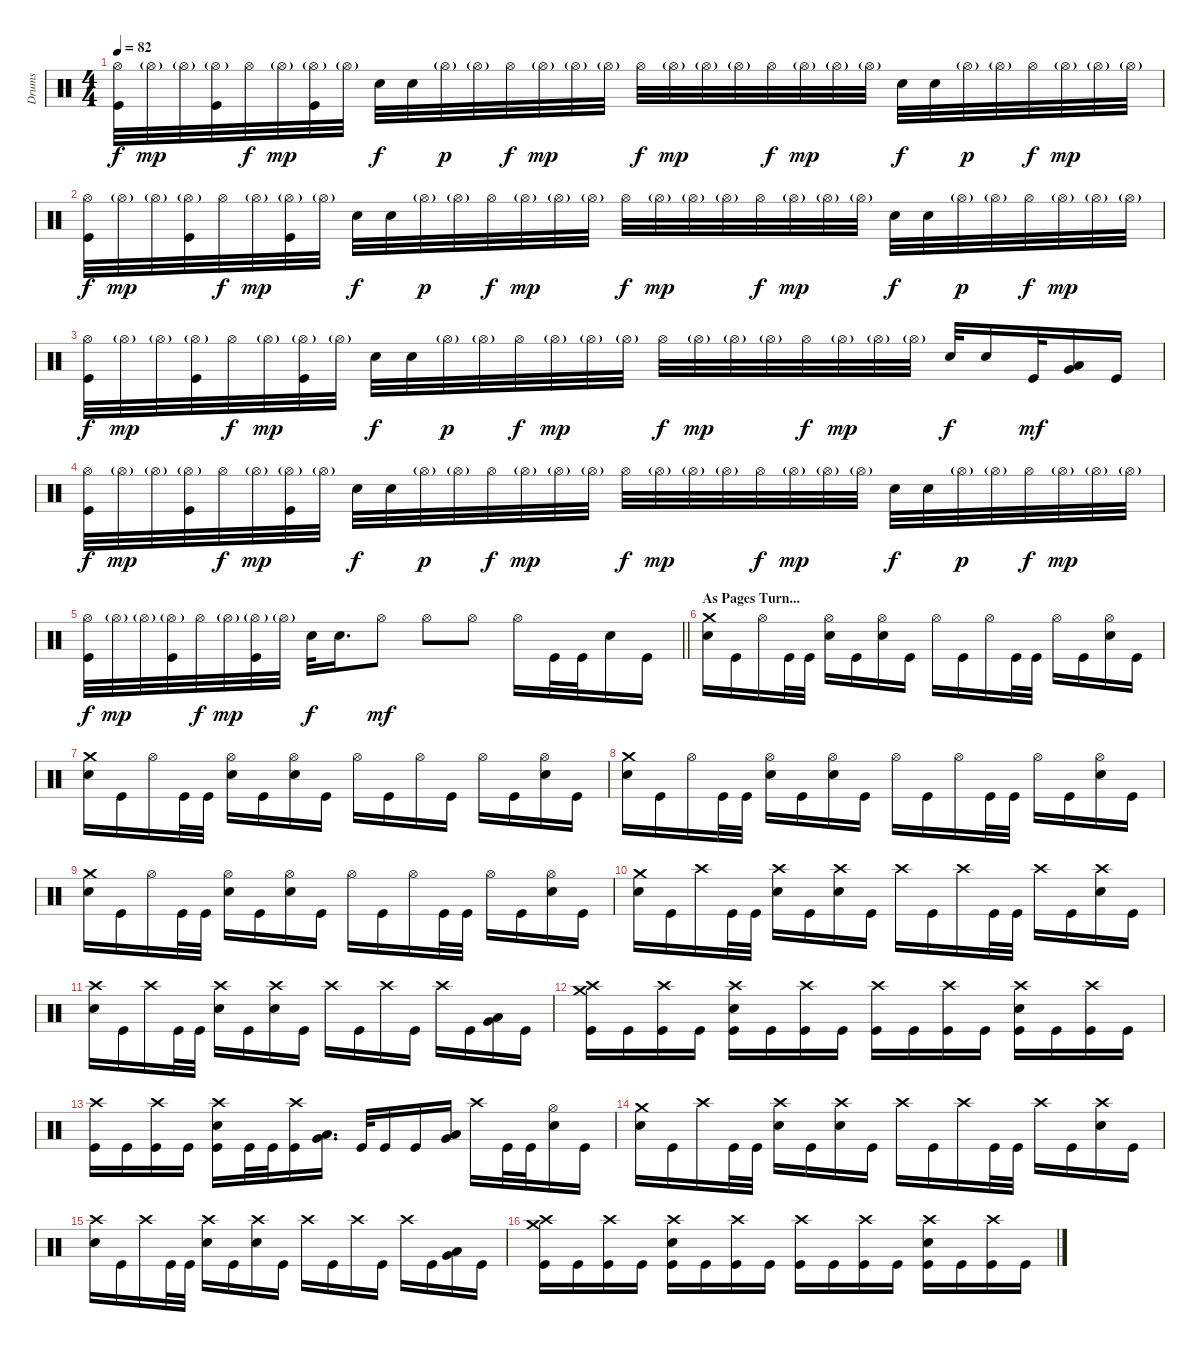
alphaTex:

\track ("Drums" "Drums") {instrument percussion bank 177}
\staff {score}
\articulation defaults
\ts (4 4)
\tempo 82
\clef neutral
\ks c
("Hi-Hat (open)" "Kick (hit)").32{dy f} "Hi-Hat (open)"{g}.32{dy mp} "Hi-Hat (open)"{g}.32 ("Hi-Hat (open)"{g} "Kick (hit)").32 "Hi-Hat (open)".32{dy f} "Hi-Hat (open)"{g}.32{dy mp} ("Hi-Hat (open)"{g} "Kick (hit)").32 "Hi-Hat (open)"{g}.32 "Snare (hit) 2".32{dy f} "Snare (hit) 2".32 "Hi-Hat (open)"{g}.32{dy p} "Hi-Hat (open)"{g}.32 "Hi-Hat (open)".32{dy f} "Hi-Hat (open)"{g}.32{dy mp} "Hi-Hat (open)"{g}.32 "Hi-Hat (open)"{g}.32 "Hi-Hat (open)".32{dy f} "Hi-Hat (open)"{g}.32{dy mp} "Hi-Hat (open)"{g}.32 "Hi-Hat (open)"{g}.32 "Hi-Hat (open)".32{dy f} "Hi-Hat (open)"{g}.32{dy mp} "Hi-Hat (open)"{g}.32 "Hi-Hat (open)"{g}.32 "Snare (hit) 2".32{dy f} "Snare (hit) 2".32 "Hi-Hat (open)"{g}.32{dy p} "Hi-Hat (open)"{g}.32 "Hi-Hat (open)".32{dy f} "Hi-Hat (open)"{g}.32{dy mp} "Hi-Hat (open)"{g}.32 "Hi-Hat (open)"{g}.32 |
("Hi-Hat (open)" "Kick (hit)").32{dy f} "Hi-Hat (open)"{g}.32{dy mp} "Hi-Hat (open)"{g}.32 ("Hi-Hat (open)"{g} "Kick (hit)").32 "Hi-Hat (open)".32{dy f} "Hi-Hat (open)"{g}.32{dy mp} ("Hi-Hat (open)"{g} "Kick (hit)").32 "Hi-Hat (open)"{g}.32 "Snare (hit) 2".32{dy f} "Snare (hit) 2".32 "Hi-Hat (open)"{g}.32{dy p} "Hi-Hat (open)"{g}.32 "Hi-Hat (open)".32{dy f} "Hi-Hat (open)"{g}.32{dy mp} "Hi-Hat (open)"{g}.32 "Hi-Hat (open)"{g}.32 "Hi-Hat (open)".32{dy f} "Hi-Hat (open)"{g}.32{dy mp} "Hi-Hat (open)"{g}.32 "Hi-Hat (open)"{g}.32 "Hi-Hat (open)".32{dy f} "Hi-Hat (open)"{g}.32{dy mp} "Hi-Hat (open)"{g}.32 "Hi-Hat (open)"{g}.32 "Snare (hit) 2".32{dy f} "Snare (hit) 2".32 "Hi-Hat (open)"{g}.32{dy p} "Hi-Hat (open)"{g}.32 "Hi-Hat (open)".32{dy f} "Hi-Hat (open)"{g}.32{dy mp} "Hi-Hat (open)"{g}.32 "Hi-Hat (open)"{g}.32 |
("Hi-Hat (open)" "Kick (hit)").32{dy f} "Hi-Hat (open)"{g}.32{dy mp} "Hi-Hat (open)"{g}.32 ("Hi-Hat (open)"{g} "Kick (hit)").32 "Hi-Hat (open)".32{dy f} "Hi-Hat (open)"{g}.32{dy mp} ("Hi-Hat (open)"{g} "Kick (hit)").32 "Hi-Hat (open)"{g}.32 "Snare (hit) 2".32{dy f} "Snare (hit) 2".32 "Hi-Hat (open)"{g}.32{dy p} "Hi-Hat (open)"{g}.32 "Hi-Hat (open)".32{dy f} "Hi-Hat (open)"{g}.32{dy mp} "Hi-Hat (open)"{g}.32 "Hi-Hat (open)"{g}.32 "Hi-Hat (open)".32{dy f} "Hi-Hat (open)"{g}.32{dy mp} "Hi-Hat (open)"{g}.32 "Hi-Hat (open)"{g}.32 "Hi-Hat (open)".32{dy f} "Hi-Hat (open)"{g}.32{dy mp} "Hi-Hat (open)"{g}.32 "Hi-Hat (open)"{g}.32 "Snare (hit) 2".32{dy f} "Snare (hit) 2".16 "Kick (hit)".32{dy mf} ("Low Tom (hit)" "Very Low Tom (hit)").16 "Kick (hit)".16 |
("Hi-Hat (open)" "Kick (hit)").32{dy f} "Hi-Hat (open)"{g}.32{dy mp} "Hi-Hat (open)"{g}.32 ("Hi-Hat (open)"{g} "Kick (hit)").32 "Hi-Hat (open)".32{dy f} "Hi-Hat (open)"{g}.32{dy mp} ("Hi-Hat (open)"{g} "Kick (hit)").32 "Hi-Hat (open)"{g}.32 "Snare (hit) 2".32{dy f} "Snare (hit) 2".32 "Hi-Hat (open)"{g}.32{dy p} "Hi-Hat (open)"{g}.32 "Hi-Hat (open)".32{dy f} "Hi-Hat (open)"{g}.32{dy mp} "Hi-Hat (open)"{g}.32 "Hi-Hat (open)"{g}.32 "Hi-Hat (open)".32{dy f} "Hi-Hat (open)"{g}.32{dy mp} "Hi-Hat (open)"{g}.32 "Hi-Hat (open)"{g}.32 "Hi-Hat (open)".32{dy f} "Hi-Hat (open)"{g}.32{dy mp} "Hi-Hat (open)"{g}.32 "Hi-Hat (open)"{g}.32 "Snare (hit) 2".32{dy f} "Snare (hit) 2".32 "Hi-Hat (open)"{g}.32{dy p} "Hi-Hat (open)"{g}.32 "Hi-Hat (open)".32{dy f} "Hi-Hat (open)"{g}.32{dy mp} "Hi-Hat (open)"{g}.32 "Hi-Hat (open)"{g}.32 |
\barLineRight lightlight
("Hi-Hat (open)" "Kick (hit)").32{dy f} "Hi-Hat (open)"{g}.32{dy mp} "Hi-Hat (open)"{g}.32 ("Hi-Hat (open)"{g} "Kick (hit)").32 "Hi-Hat (open)".32{dy f} "Hi-Hat (open)"{g}.32{dy mp} ("Hi-Hat (open)"{g} "Kick (hit)").32 "Hi-Hat (open)"{g}.32 "Snare (hit) 2".32{dy f} "Snare (hit) 2".16{d} "Hi-Hat (open)".8{dy mf} "Hi-Hat (open)".8 "Hi-Hat (open)".8 "Hi-Hat (open)".16 "Kick (hit)".32 "Kick (hit)".32 "Snare (hit) 2".16 "Kick (hit)".16 |
\section ("" "As Pages Turn...")
("Crash medium (hit)" "Snare (hit) 2").16 "Kick (hit)".16 "Hi-Hat (open)".16 "Kick (hit)".32 "Kick (hit)".32 ("Hi-Hat (open)" "Snare (hit) 2").16 "Kick (hit)".16 ("Hi-Hat (open)" "Snare (hit) 2").16 "Kick (hit)".16 "Hi-Hat (open)".16 "Kick (hit)".16 "Hi-Hat (open)".16 "Kick (hit)".32 "Kick (hit)".32 "Hi-Hat (open)".16 "Kick (hit)".16 ("Hi-Hat (open)" "Snare (hit) 2").16 "Kick (hit)".16 |
("Crash medium (hit)" "Snare (hit) 2").16 "Kick (hit)".16 "Hi-Hat (open)".16 "Kick (hit)".32 "Kick (hit)".32 ("Hi-Hat (open)" "Snare (hit) 2").16 "Kick (hit)".16 ("Hi-Hat (open)" "Snare (hit) 2").16 "Kick (hit)".16 "Hi-Hat (open)".16 "Kick (hit)".16 "Hi-Hat (open)".16 "Kick (hit)".16 "Hi-Hat (open)".16 "Kick (hit)".16 ("Hi-Hat (open)" "Snare (hit) 2").16 "Kick (hit)".16 |
("Crash medium (hit)" "Snare (hit) 2").16 "Kick (hit)".16 "Hi-Hat (open)".16 "Kick (hit)".32 "Kick (hit)".32 ("Hi-Hat (open)" "Snare (hit) 2").16 "Kick (hit)".16 ("Hi-Hat (open)" "Snare (hit) 2").16 "Kick (hit)".16 "Hi-Hat (open)".16 "Kick (hit)".16 "Hi-Hat (open)".16 "Kick (hit)".32 "Kick (hit)".32 "Hi-Hat (open)".16 "Kick (hit)".16 ("Hi-Hat (open)" "Snare (hit) 2").16 "Kick (hit)".16 |
("Crash medium (hit)" "Snare (hit) 2").16 "Kick (hit)".16 "Hi-Hat (open)".16 "Kick (hit)".32 "Kick (hit)".32 ("Hi-Hat (open)" "Snare (hit) 2").16 "Kick (hit)".16 ("Hi-Hat (open)" "Snare (hit) 2").16 "Kick (hit)".16 "Hi-Hat (open)".16 "Kick (hit)".16 "Hi-Hat (open)".16 "Kick (hit)".32 "Kick (hit)".32 "Hi-Hat (open)".16 "Kick (hit)".16 ("Hi-Hat (open)" "Snare (hit) 2").16 "Kick (hit)".16 |
("Crash medium (hit)" "Snare (hit) 2").16 "Kick (hit)".16 "Crash high (hit)".16 "Kick (hit)".32 "Kick (hit)".32 ("Crash high (hit)" "Snare (hit) 2").16 "Kick (hit)".16 ("Crash high (hit)" "Snare (hit) 2").16 "Kick (hit)".16 "Crash high (hit)".16 "Kick (hit)".16 "Crash high (hit)".16 "Kick (hit)".32 "Kick (hit)".32 "Crash high (hit)".16 "Kick (hit)".16 ("Crash high (hit)" "Snare (hit) 2").16 "Kick (hit)".16 |
("Crash high (hit)" "Snare (hit) 2").16 "Kick (hit)".16 "Crash high (hit)".16 "Kick (hit)".32 "Kick (hit)".32 ("Crash high (hit)" "Snare (hit) 2").16 "Kick (hit)".16 ("Crash high (hit)" "Snare (hit) 2").16 "Kick (hit)".16 "Crash high (hit)".16 "Kick (hit)".16 "Crash high (hit)".16 "Kick (hit)".16 "Crash high (hit)".16 "Kick (hit)".16 ("Low Tom (hit)" "Very Low Tom (hit)").16 "Kick (hit)".16 |
("Crash high (hit)" "Crash medium (hit)" "Kick (hit)").16 "Kick (hit)".16 ("Crash high (hit)" "Kick (hit)").16 "Kick (hit)".16 ("Crash high (hit)" "Snare (hit) 2" "Kick (hit)").16 "Kick (hit)".16 ("Crash high (hit)" "Kick (hit)").16 "Kick (hit)".16 ("Crash high (hit)" "Kick (hit)").16 "Kick (hit)".16 ("Crash high (hit)" "Kick (hit)").16 "Kick (hit)".16 ("Crash high (hit)" "Snare (hit) 2" "Kick (hit)").16 "Kick (hit)".16 ("Crash high (hit)" "Kick (hit)").16 "Kick (hit)".16 |
("Crash high (hit)" "Kick (hit)").16 "Kick (hit)".16 ("Crash high (hit)" "Kick (hit)").16 "Kick (hit)".16 ("Crash high (hit)" "Snare (hit) 2" "Kick (hit)").16 "Kick (hit)".32 "Kick (hit)".32 ("Crash high (hit)" "Kick (hit)").16 ("Very Low Tom (hit)" "Low Floor Tom (hit)").16{d} "Kick (hit)".32 "Kick (hit)".16 "Kick (hit)".16 ("Low Tom (hit)" "Very Low Tom (hit)").16 "Crash high (hit)".16 "Kick (hit)".32 "Kick (hit)".32 ("Hi-Hat (open)" "Snare (hit) 2").16 "Kick (hit)".16 |
("Crash medium (hit)" "Snare (hit) 2").16 "Kick (hit)".16 "Crash high (hit)".16 "Kick (hit)".32 "Kick (hit)".32 ("Crash high (hit)" "Snare (hit) 2").16 "Kick (hit)".16 ("Crash high (hit)" "Snare (hit) 2").16 "Kick (hit)".16 "Crash high (hit)".16 "Kick (hit)".16 "Crash high (hit)".16 "Kick (hit)".32 "Kick (hit)".32 "Crash high (hit)".16 "Kick (hit)".16 ("Crash high (hit)" "Snare (hit) 2").16 "Kick (hit)".16 |
("Crash high (hit)" "Snare (hit) 2").16 "Kick (hit)".16 "Crash high (hit)".16 "Kick (hit)".32 "Kick (hit)".32 ("Crash high (hit)" "Snare (hit) 2").16 "Kick (hit)".16 ("Crash high (hit)" "Snare (hit) 2").16 "Kick (hit)".16 "Crash high (hit)".16 "Kick (hit)".16 "Crash high (hit)".16 "Kick (hit)".16 "Crash high (hit)".16 "Kick (hit)".16 ("Low Tom (hit)" "Very Low Tom (hit)").16 "Kick (hit)".16 |
("Crash high (hit)" "Crash medium (hit)" "Kick (hit)").16 "Kick (hit)".16 ("Crash high (hit)" "Kick (hit)").16 "Kick (hit)".16 ("Crash high (hit)" "Snare (hit) 2" "Kick (hit)").16 "Kick (hit)".16 ("Crash high (hit)" "Kick (hit)").16 "Kick (hit)".16 ("Crash high (hit)" "Kick (hit)").16 "Kick (hit)".16 ("Crash high (hit)" "Kick (hit)").16 "Kick (hit)".16 ("Crash high (hit)" "Snare (hit) 2" "Kick (hit)").16 "Kick (hit)".16 ("Crash high (hit)" "Kick (hit)").16 "Kick (hit)".16
